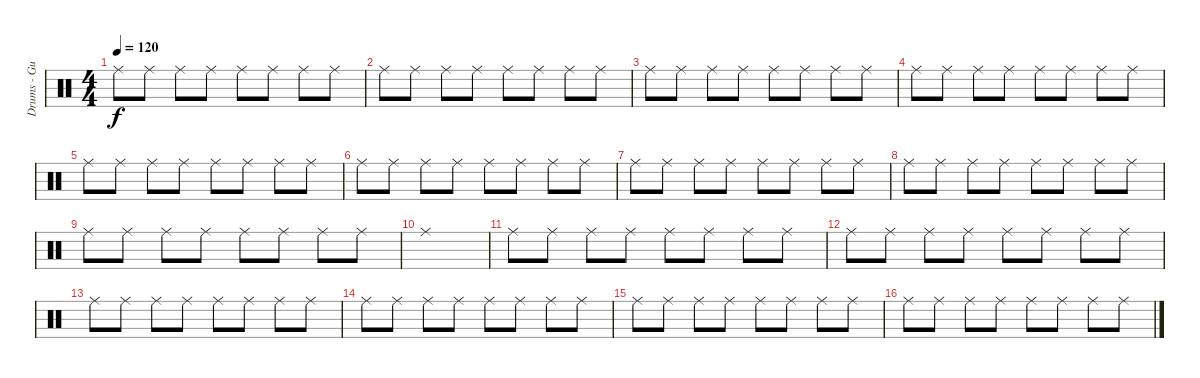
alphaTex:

\track ("Drums - Gustav" "Drums - Gu") {instrument percussion}
\staff {score}
\articulation defaults
\ts (4 4)
\tempo 120
\clef neutral
\ks c "Ride (middle)".8{dy f} "Ride (middle)".8 "Ride (middle)".8 "Ride (middle)".8 "Ride (middle)".8 "Ride (middle)".8 "Ride (middle)".8 "Ride (middle)".8
|
"Ride (middle)".8 "Ride (middle)".8 "Ride (middle)".8 "Ride (middle)".8 "Ride (middle)".8 "Ride (middle)".8 "Ride (middle)".8 "Ride (middle)".8 |
"Ride (middle)".8 "Ride (middle)".8 "Ride (middle)".8 "Ride (middle)".8 "Ride (middle)".8 "Ride (middle)".8 "Ride (middle)".8 "Ride (middle)".8 |
"Ride (middle)".8 "Ride (middle)".8 "Ride (middle)".8 "Ride (middle)".8 "Ride (middle)".8 "Ride (middle)".8 "Ride (middle)".8 "Ride (middle)".8 |
"Ride (middle)".8 "Ride (middle)".8 "Ride (middle)".8 "Ride (middle)".8 "Ride (middle)".8 "Ride (middle)".8 "Ride (middle)".8 "Ride (middle)".8 |
"Ride (middle)".8 "Ride (middle)".8 "Ride (middle)".8 "Ride (middle)".8 "Ride (middle)".8 "Ride (middle)".8 "Ride (middle)".8 "Ride (middle)".8 |
"Ride (middle)".8 "Ride (middle)".8 "Ride (middle)".8 "Ride (middle)".8 "Ride (middle)".8 "Ride (middle)".8 "Ride (middle)".8 "Ride (middle)".8 |
"Ride (middle)".8 "Ride (middle)".8 "Ride (middle)".8 "Ride (middle)".8 "Ride (middle)".8 "Ride (middle)".8 "Ride (middle)".8 "Ride (middle)".8 |
"Ride (middle)".8 "Ride (middle)".8 "Ride (middle)".8 "Ride (middle)".8 "Ride (middle)".8 "Ride (middle)".8 "Ride (middle)".8 "Ride (middle)".8 |
"Ride (middle)".1 |
"Ride (middle)".8 "Ride (middle)".8 "Ride (middle)".8 "Ride (middle)".8 "Ride (middle)".8 "Ride (middle)".8 "Ride (middle)".8 "Ride (middle)".8 |
"Ride (middle)".8 "Ride (middle)".8 "Ride (middle)".8 "Ride (middle)".8 "Ride (middle)".8 "Ride (middle)".8 "Ride (middle)".8 "Ride (middle)".8 |
"Ride (middle)".8 "Ride (middle)".8 "Ride (middle)".8 "Ride (middle)".8 "Ride (middle)".8 "Ride (middle)".8 "Ride (middle)".8 "Ride (middle)".8 |
"Ride (middle)".8 "Ride (middle)".8 "Ride (middle)".8 "Ride (middle)".8 "Ride (middle)".8 "Ride (middle)".8 "Ride (middle)".8 "Ride (middle)".8 |
"Ride (middle)".8 "Ride (middle)".8 "Ride (middle)".8 "Ride (middle)".8 "Ride (middle)".8 "Ride (middle)".8 "Ride (middle)".8 "Ride (middle)".8 |
"Ride (middle)".8 "Ride (middle)".8 "Ride (middle)".8 "Ride (middle)".8 "Ride (middle)".8 "Ride (middle)".8 "Ride (middle)".8 "Ride (middle)".8
